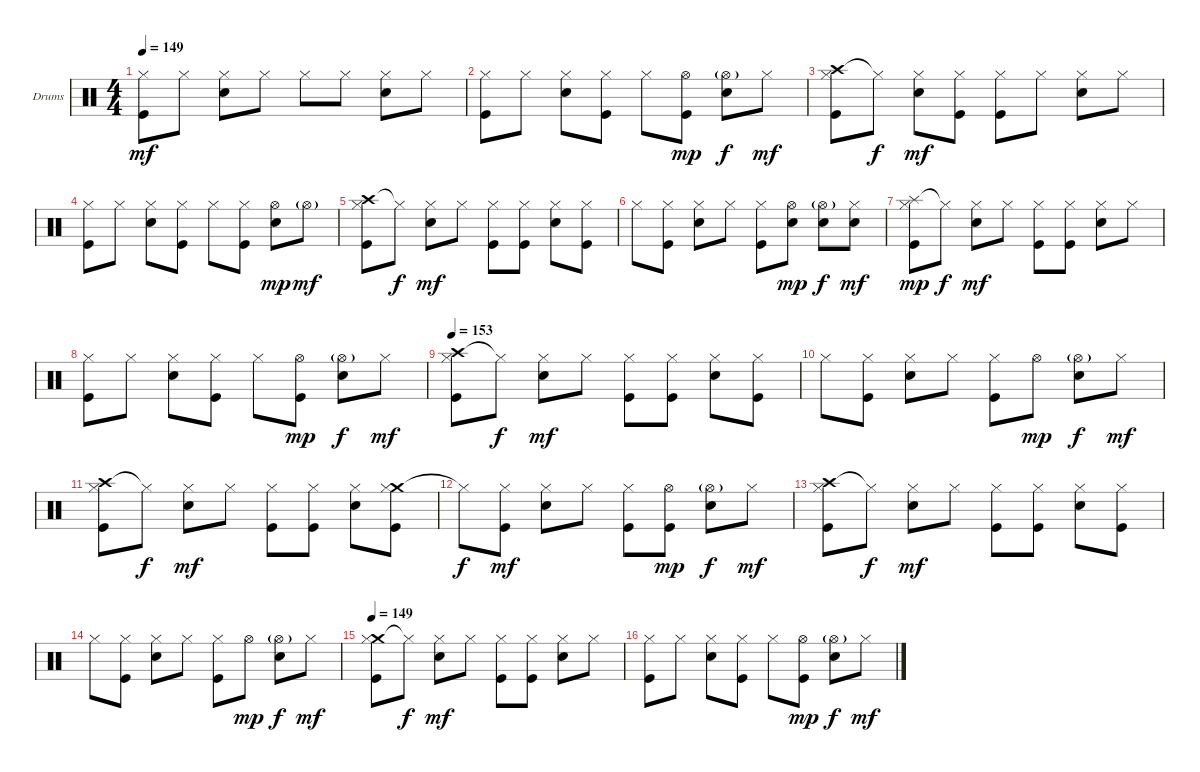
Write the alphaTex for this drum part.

\bracketExtendMode groupsimilarinstruments
\firstSystemTrackNameOrientation horizontal
\otherSystemsTrackNameOrientation horizontal
\track ("Drumkit" "Drums") {instrument percussion}
\staff {score}
\articulation defaults
\ts (4 4)
\tempo 149
\clef neutral
\ks c
("Hi-Hat (closed)" "Kick (hit)").8{dy mf} "Hi-Hat (closed)".8 ("Hi-Hat (closed)" "Snare (hit) 2").8 "Hi-Hat (closed)".8 "Hi-Hat (closed)".8 "Hi-Hat (closed)".8 ("Hi-Hat (closed)" "Snare (hit) 2").8 "Hi-Hat (closed)".8 |
("Hi-Hat (closed)" "Kick (hit)").8 "Hi-Hat (closed)".8 ("Hi-Hat (closed)" "Snare (hit) 2").8 ("Hi-Hat (closed)" "Kick (hit)").8 "Hi-Hat (closed)".8 ("Hi-Hat (open)" "Kick (hit)").8{dy mp} ("Hi-Hat (open)"{g} "Snare (hit) 2").8{dy f} "Hi-Hat (closed)".8{dy mf} |
("Crash high (hit)" "Hi-Hat (closed)" "Kick (hit)").8 "Hi-Hat (closed)"{t}.8{dy f} ("Hi-Hat (closed)" "Snare (hit) 2").8{dy mf} ("Hi-Hat (closed)" "Kick (hit)").8 ("Hi-Hat (closed)" "Kick (hit)").8 "Hi-Hat (closed)".8 ("Hi-Hat (closed)" "Snare (hit) 2").8 "Hi-Hat (closed)".8 |
("Hi-Hat (closed)" "Kick (hit)").8 "Hi-Hat (closed)".8 ("Hi-Hat (closed)" "Snare (hit) 2").8 ("Hi-Hat (closed)" "Kick (hit)").8 "Hi-Hat (closed)".8 ("Hi-Hat (closed)" "Kick (hit)").8 ("Hi-Hat (open)" "Snare (hit) 2").8{dy mp} "Hi-Hat (open)"{g}.8{dy mf} |
("Crash high (hit)" "Hi-Hat (closed)" "Kick (hit)").8 "Hi-Hat (closed)"{t}.8{dy f} ("Hi-Hat (closed)" "Snare (hit) 2").8{dy mf} "Hi-Hat (closed)".8 ("Hi-Hat (closed)" "Kick (hit)").8 ("Hi-Hat (closed)" "Kick (hit)").8 ("Hi-Hat (closed)" "Snare (hit) 2").8 ("Hi-Hat (closed)" "Kick (hit)").8 |
"Hi-Hat (closed)".8 ("Hi-Hat (closed)" "Kick (hit)").8 ("Hi-Hat (closed)" "Snare (hit) 2").8 "Hi-Hat (closed)".8 ("Hi-Hat (closed)" "Kick (hit)").8 ("Hi-Hat (open)" "Snare (hit) 2").8{dy mp} ("Hi-Hat (open)"{g} "Snare (hit) 2").8{dy f} ("Hi-Hat (closed)" "Snare (hit) 2").8{dy mf} |
("Splash (hit)" "Hi-Hat (closed)" "Kick (hit)").8{dy mp} "Hi-Hat (closed)"{t}.8{dy f} ("Hi-Hat (closed)" "Snare (hit) 2").8{dy mf} "Hi-Hat (closed)".8 ("Hi-Hat (closed)" "Kick (hit)").8 ("Hi-Hat (closed)" "Kick (hit)").8 ("Hi-Hat (closed)" "Snare (hit) 2").8 "Hi-Hat (closed)".8 |
("Hi-Hat (closed)" "Kick (hit)").8 "Hi-Hat (closed)".8 ("Hi-Hat (closed)" "Snare (hit) 2").8 ("Hi-Hat (closed)" "Kick (hit)").8 "Hi-Hat (closed)".8 ("Hi-Hat (open)" "Kick (hit)").8{dy mp} ("Hi-Hat (open)"{g} "Snare (hit) 2").8{dy f} "Hi-Hat (closed)".8{dy mf} |
\tempo 153
("Crash high (hit)" "Hi-Hat (closed)" "Kick (hit)").8 "Hi-Hat (closed)"{t}.8{dy f} ("Hi-Hat (closed)" "Snare (hit) 2").8{dy mf} "Hi-Hat (closed)".8 ("Hi-Hat (closed)" "Kick (hit)").8 ("Hi-Hat (closed)" "Kick (hit)").8 ("Hi-Hat (closed)" "Snare (hit) 2").8 ("Hi-Hat (closed)" "Kick (hit)").8 |
"Hi-Hat (closed)".8 ("Hi-Hat (closed)" "Kick (hit)").8 ("Hi-Hat (closed)" "Snare (hit) 2").8 "Hi-Hat (closed)".8 ("Hi-Hat (closed)" "Kick (hit)").8 "Hi-Hat (open)".8{dy mp} ("Hi-Hat (open)"{g} "Snare (hit) 2").8{dy f} "Hi-Hat (closed)".8{dy mf} |
("Crash high (hit)" "Hi-Hat (closed)" "Kick (hit)").8 "Hi-Hat (closed)"{t}.8{dy f} ("Hi-Hat (closed)" "Snare (hit) 2").8{dy mf} "Hi-Hat (closed)".8 ("Hi-Hat (closed)" "Kick (hit)").8 ("Hi-Hat (closed)" "Kick (hit)").8 ("Hi-Hat (closed)" "Snare (hit) 2").8 ("Crash medium (hit)" "Hi-Hat (closed)" "Kick (hit)").8 |
"Hi-Hat (closed)"{t}.8{dy f} ("Hi-Hat (closed)" "Kick (hit)").8{dy mf} ("Hi-Hat (closed)" "Snare (hit) 2").8 "Hi-Hat (closed)".8 ("Hi-Hat (closed)" "Kick (hit)").8 ("Hi-Hat (open)" "Kick (hit)").8{dy mp} ("Hi-Hat (open)"{g} "Snare (hit) 2").8{dy f} "Hi-Hat (closed)".8{dy mf} |
("Crash high (hit)" "Hi-Hat (closed)" "Kick (hit)").8 "Hi-Hat (closed)"{t}.8{dy f} ("Hi-Hat (closed)" "Snare (hit) 2").8{dy mf} "Hi-Hat (closed)".8 ("Hi-Hat (closed)" "Kick (hit)").8 ("Hi-Hat (closed)" "Kick (hit)").8 ("Hi-Hat (closed)" "Snare (hit) 2").8 ("Hi-Hat (closed)" "Kick (hit)").8 |
"Hi-Hat (closed)".8 ("Hi-Hat (closed)" "Kick (hit)").8 ("Hi-Hat (closed)" "Snare (hit) 2").8 "Hi-Hat (closed)".8 ("Hi-Hat (closed)" "Kick (hit)").8 "Hi-Hat (open)".8{dy mp} ("Hi-Hat (open)"{g} "Snare (hit) 2").8{dy f} "Hi-Hat (closed)".8{dy mf} |
\tempo 149
("Crash medium (hit)" "Hi-Hat (closed)" "Kick (hit)").8 "Hi-Hat (closed)"{t}.8{dy f} ("Hi-Hat (closed)" "Snare (hit) 2").8{dy mf} "Hi-Hat (closed)".8 ("Hi-Hat (closed)" "Kick (hit)").8 ("Hi-Hat (closed)" "Kick (hit)").8 ("Hi-Hat (closed)" "Snare (hit) 2").8 "Hi-Hat (closed)".8 |
("Hi-Hat (closed)" "Kick (hit)").8 "Hi-Hat (closed)".8 ("Hi-Hat (closed)" "Snare (hit) 2").8 ("Hi-Hat (closed)" "Kick (hit)").8 "Hi-Hat (closed)".8 ("Hi-Hat (open)" "Kick (hit)").8{dy mp} ("Hi-Hat (open)"{g} "Snare (hit) 2").8{dy f} "Hi-Hat (closed)".8{dy mf}
